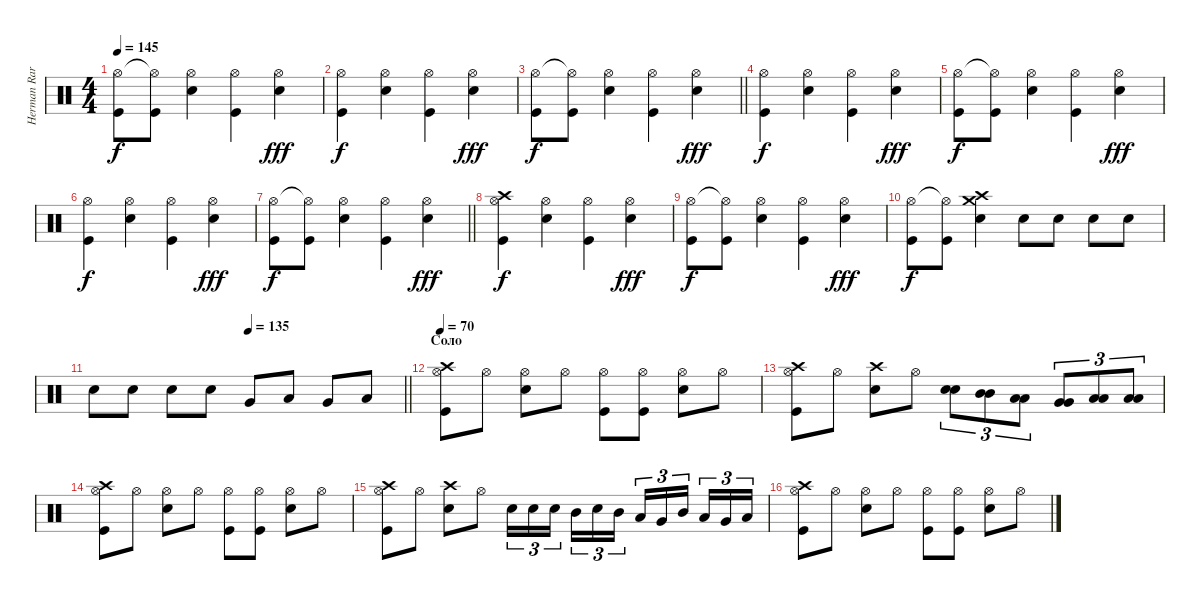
\track ("Herman Rarebell" "Herman Rar") {instrument percussion}
\staff {score}
\articulation defaults
\ts (4 4)
\tempo 145
\clef neutral
\ks c
("Hi-Hat (open)" "Kick (hit)").8{dy f} ("Hi-Hat (open)"{t} "Kick (hit)").8 ("Hi-Hat (open)" "Snare (hit) 2").4 ("Hi-Hat (open)" "Kick (hit)").4 ("Hi-Hat (open)" "Snare (hit) 2").4{dy fff} |
("Hi-Hat (open)" "Kick (hit)").4{dy f} ("Hi-Hat (open)" "Snare (hit) 2").4 ("Hi-Hat (open)" "Kick (hit)").4 ("Hi-Hat (open)" "Snare (hit) 2").4{dy fff} |
\barLineRight lightlight
("Hi-Hat (open)" "Kick (hit)").8{dy f} ("Hi-Hat (open)"{t} "Kick (hit)").8 ("Hi-Hat (open)" "Snare (hit) 2").4 ("Hi-Hat (open)" "Kick (hit)").4 ("Hi-Hat (open)" "Snare (hit) 2").4{dy fff} |
("Hi-Hat (open)" "Kick (hit)").4{dy f} ("Hi-Hat (open)" "Snare (hit) 2").4 ("Hi-Hat (open)" "Kick (hit)").4 ("Hi-Hat (open)" "Snare (hit) 2").4{dy fff} |
("Hi-Hat (open)" "Kick (hit)").8{dy f} ("Hi-Hat (open)"{t} "Kick (hit)").8 ("Hi-Hat (open)" "Snare (hit) 2").4 ("Hi-Hat (open)" "Kick (hit)").4 ("Hi-Hat (open)" "Snare (hit) 2").4{dy fff} |
("Hi-Hat (open)" "Kick (hit)").4{dy f} ("Hi-Hat (open)" "Snare (hit) 2").4 ("Hi-Hat (open)" "Kick (hit)").4 ("Hi-Hat (open)" "Snare (hit) 2").4{dy fff} |
\barLineRight lightlight
("Hi-Hat (open)" "Kick (hit)").8{dy f} ("Hi-Hat (open)"{t} "Kick (hit)").8 ("Hi-Hat (open)" "Snare (hit) 2").4 ("Hi-Hat (open)" "Kick (hit)").4 ("Hi-Hat (open)" "Snare (hit) 2").4{dy fff} |
("Hi-Hat (open)" "Crash high (hit)" "Kick (hit)").4{dy f} ("Hi-Hat (open)" "Snare (hit) 2").4 ("Hi-Hat (open)" "Kick (hit)").4 ("Hi-Hat (open)" "Snare (hit) 2").4{dy fff} |
("Hi-Hat (open)" "Kick (hit)").8{dy f} ("Hi-Hat (open)"{t} "Kick (hit)").8 ("Hi-Hat (open)" "Snare (hit) 2").4 ("Hi-Hat (open)" "Kick (hit)").4 ("Hi-Hat (open)" "Snare (hit) 2").4{dy fff} |
("Hi-Hat (open)" "Kick (hit)").8{dy f} ("Hi-Hat (open)"{t} "Kick (hit)").8 ("Crash medium (hit)" "Snare (hit) 2" "Crash high (hit)").4 "Snare (hit) 2".8 "Snare (hit) 2".8 "Snare (hit) 2".8 "Snare (hit) 2".8 |
\tempo (135 0.5)
\barLineRight lightlight "Snare (hit) 2".8 "Snare (hit) 2".8 "Snare (hit) 2".8 "Snare (hit) 2".8 "Very Low Tom (hit)".8 "Low Tom (hit)".8 "Very Low Tom (hit)".8 "Low Tom (hit)".8
|
\section ("" "Соло")
\tempo 70
("Hi-Hat (open)" "Crash high (hit)" "Kick (hit)").8 "Hi-Hat (open)".8 ("Hi-Hat (open)" "Snare (hit) 2").8 "Hi-Hat (open)".8 ("Hi-Hat (open)" "Kick (hit)").8 ("Hi-Hat (open)" "Kick (hit)").8 ("Hi-Hat (open)" "Snare (hit) 2").8 "Hi-Hat (open)".8 |
("Hi-Hat (open)" "Crash high (hit)" "Kick (hit)").8 "Hi-Hat (open)".8 ("Crash high (hit)" "Snare (hit) 2").8 "Hi-Hat (open)".8 ("Snare (hit) 2" "Snare (hit) 2").8{tu (3 2)} ("Mid Tom (hit)" "Mid Tom (hit)").8{tu (3 2)} ("Low Tom (hit)" "Low Tom (hit)").8{tu (3 2)} ("Very Low Tom (hit)" "Very Low Tom (hit)").8{tu (3 2)} ("Low Floor Tom (hit)" "Low Floor Tom (hit)").8{tu (3 2)} ("Low Floor Tom (hit)" "Low Floor Tom (hit)").8{tu (3 2)} |
("Hi-Hat (open)" "Crash high (hit)" "Kick (hit)").8 "Hi-Hat (open)".8 ("Hi-Hat (open)" "Snare (hit) 2").8 "Hi-Hat (open)".8 ("Hi-Hat (open)" "Kick (hit)").8 ("Hi-Hat (open)" "Kick (hit)").8 ("Hi-Hat (open)" "Snare (hit) 2").8 "Hi-Hat (open)".8 |
("Hi-Hat (open)" "Crash high (hit)" "Kick (hit)").8 "Hi-Hat (open)".8 ("Crash high (hit)" "Snare (hit) 2").8 "Hi-Hat (open)".8 "Snare (hit) 2".16{tu (3 2)} "Snare (hit) 2".16{tu (3 2)} "Snare (hit) 2".16{tu (3 2) beam splitsecondary} "Mid Tom (hit)".16{tu (3 2)} "Snare (hit) 2".16{tu (3 2)} "Mid Tom (hit)".16{tu (3 2)} "Low Tom (hit)".16{tu (3 2)} "Very Low Tom (hit)".16{tu (3 2)} "Mid Tom (hit)".16{tu (3 2) beam splitsecondary} "Low Tom (hit)".16{tu (3 2)} "Very Low Tom (hit)".16{tu (3 2)} "Low Floor Tom (hit)".16{tu (3 2)} |
("Hi-Hat (open)" "Crash high (hit)" "Kick (hit)").8 "Hi-Hat (open)".8 ("Hi-Hat (open)" "Snare (hit) 2").8 "Hi-Hat (open)".8 ("Hi-Hat (open)" "Kick (hit)").8 ("Hi-Hat (open)" "Kick (hit)").8 ("Hi-Hat (open)" "Snare (hit) 2").8 "Hi-Hat (open)".8
